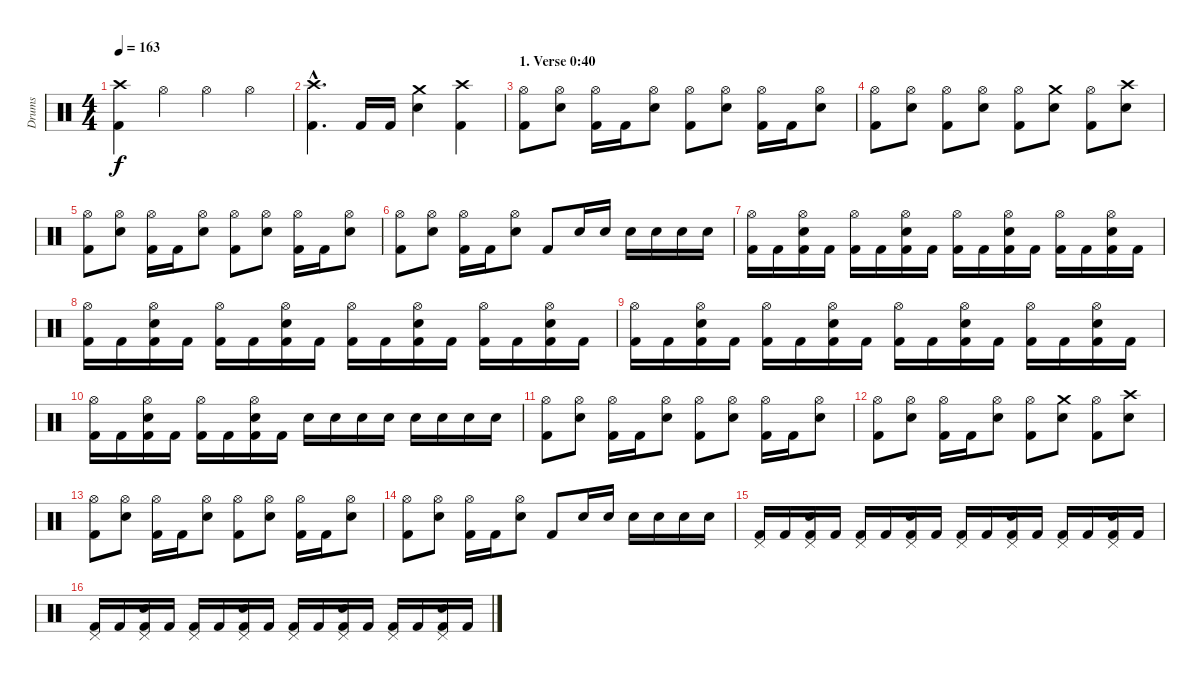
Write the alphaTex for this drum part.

\track ("Drums" "Drums") {instrument percussion}
\staff {score}
\articulation defaults
\ts (4 4)
\tempo 163
\clef neutral
\ks c
("Kick (hit) 2" "Crash high (hit)").4{dy f} "Hi-Hat (open)".4 "Hi-Hat (open)".4 "Hi-Hat (open)".4 |
("Kick (hit) 2"{hac} "Crash high (hit)"{hac}).4{d} "Kick (hit) 2".16 "Kick (hit) 2".16 ("Crash medium (hit)" "Snare (hit) 2").4 ("Crash high (hit)" "Kick (hit) 2").4 |
\section ("" "1. Verse 0:40")
("Hi-Hat (open)" "Kick (hit) 2").8 ("Hi-Hat (open)" "Snare (hit) 2").8 ("Hi-Hat (open)" "Kick (hit) 2").16 "Kick (hit) 2".16 ("Hi-Hat (open)" "Snare (hit) 2").8 ("Hi-Hat (open)" "Kick (hit) 2").8 ("Hi-Hat (open)" "Snare (hit) 2").8 ("Hi-Hat (open)" "Kick (hit) 2").16 "Kick (hit) 2".16 ("Hi-Hat (open)" "Snare (hit) 2").8 |
("Hi-Hat (open)" "Kick (hit) 2").8 ("Hi-Hat (open)" "Snare (hit) 2").8 ("Hi-Hat (open)" "Kick (hit) 2").8 ("Hi-Hat (open)" "Snare (hit) 2").8 ("Hi-Hat (open)" "Kick (hit) 2").8 ("Crash medium (hit)" "Snare (hit) 2").8 ("Hi-Hat (open)" "Kick (hit) 2").8 ("Crash high (hit)" "Snare (hit) 2").8 |
("Hi-Hat (open)" "Kick (hit) 2").8 ("Hi-Hat (open)" "Snare (hit) 2").8 ("Hi-Hat (open)" "Kick (hit) 2").16 "Kick (hit) 2".16 ("Hi-Hat (open)" "Snare (hit) 2").8 ("Hi-Hat (open)" "Kick (hit) 2").8 ("Hi-Hat (open)" "Snare (hit) 2").8 ("Hi-Hat (open)" "Kick (hit) 2").16 "Kick (hit) 2".16 ("Hi-Hat (open)" "Snare (hit) 2").8 |
("Hi-Hat (open)" "Kick (hit) 2").8 ("Hi-Hat (open)" "Snare (hit) 2").8 ("Hi-Hat (open)" "Kick (hit) 2").16 "Kick (hit) 2".16 ("Hi-Hat (open)" "Snare (hit) 2").8 "Kick (hit) 2".8 "Snare (hit) 2".16 "Snare (hit) 2".16 "Snare (hit) 2".16 "Snare (hit) 2".16 "Snare (hit) 2".16 "Snare (hit) 2".16 |
("Hi-Hat (open)" "Kick (hit) 2").16 "Kick (hit) 2".16 ("Hi-Hat (open)" "Kick (hit) 2" "Snare (hit) 2").16 "Kick (hit) 2".16 ("Hi-Hat (open)" "Kick (hit) 2").16 "Kick (hit) 2".16 ("Hi-Hat (open)" "Kick (hit) 2" "Snare (hit) 2").16 "Kick (hit) 2".16 ("Hi-Hat (open)" "Kick (hit) 2").16 "Kick (hit) 2".16 ("Hi-Hat (open)" "Kick (hit) 2" "Snare (hit) 2").16 "Kick (hit) 2".16 ("Hi-Hat (open)" "Kick (hit) 2").16 "Kick (hit) 2".16 ("Hi-Hat (open)" "Kick (hit) 2" "Snare (hit) 2").16 "Kick (hit) 2".16 |
("Hi-Hat (open)" "Kick (hit) 2").16 "Kick (hit) 2".16 ("Hi-Hat (open)" "Kick (hit) 2" "Snare (hit) 2").16 "Kick (hit) 2".16 ("Hi-Hat (open)" "Kick (hit) 2").16 "Kick (hit) 2".16 ("Hi-Hat (open)" "Kick (hit) 2" "Snare (hit) 2").16 "Kick (hit) 2".16 ("Hi-Hat (open)" "Kick (hit) 2").16 "Kick (hit) 2".16 ("Hi-Hat (open)" "Kick (hit) 2" "Snare (hit) 2").16 "Kick (hit) 2".16 ("Hi-Hat (open)" "Kick (hit) 2").16 "Kick (hit) 2".16 ("Hi-Hat (open)" "Kick (hit) 2" "Snare (hit) 2").16 "Kick (hit) 2".16 |
("Hi-Hat (open)" "Kick (hit) 2").16 "Kick (hit) 2".16 ("Hi-Hat (open)" "Kick (hit) 2" "Snare (hit) 2").16 "Kick (hit) 2".16 ("Hi-Hat (open)" "Kick (hit) 2").16 "Kick (hit) 2".16 ("Hi-Hat (open)" "Kick (hit) 2" "Snare (hit) 2").16 "Kick (hit) 2".16 ("Hi-Hat (open)" "Kick (hit) 2").16 "Kick (hit) 2".16 ("Hi-Hat (open)" "Kick (hit) 2" "Snare (hit) 2").16 "Kick (hit) 2".16 ("Hi-Hat (open)" "Kick (hit) 2").16 "Kick (hit) 2".16 ("Hi-Hat (open)" "Kick (hit) 2" "Snare (hit) 2").16 "Kick (hit) 2".16 |
("Hi-Hat (open)" "Kick (hit) 2").16 "Kick (hit) 2".16 ("Hi-Hat (open)" "Kick (hit) 2" "Snare (hit) 2").16 "Kick (hit) 2".16 ("Hi-Hat (open)" "Kick (hit) 2").16 "Kick (hit) 2".16 ("Hi-Hat (open)" "Kick (hit) 2" "Snare (hit) 2").16 "Kick (hit) 2".16 "Snare (hit) 2".16 "Snare (hit) 2".16 "Snare (hit) 2".16 "Snare (hit) 2".16 "Snare (hit) 2".16 "Snare (hit) 2".16 "Snare (hit) 2".16 "Snare (hit) 2".16 |
("Hi-Hat (open)" "Kick (hit) 2").8 ("Hi-Hat (open)" "Snare (hit) 2").8 ("Hi-Hat (open)" "Kick (hit) 2").16 "Kick (hit) 2".16 ("Hi-Hat (open)" "Snare (hit) 2").8 ("Hi-Hat (open)" "Kick (hit) 2").8 ("Hi-Hat (open)" "Snare (hit) 2").8 ("Hi-Hat (open)" "Kick (hit) 2").16 "Kick (hit) 2".16 ("Hi-Hat (open)" "Snare (hit) 2").8 |
("Hi-Hat (open)" "Kick (hit) 2").8 ("Hi-Hat (open)" "Snare (hit) 2").8 ("Hi-Hat (open)" "Kick (hit) 2").16 "Kick (hit) 2".16 ("Hi-Hat (open)" "Snare (hit) 2").8 ("Hi-Hat (open)" "Kick (hit) 2").8 ("Crash medium (hit)" "Snare (hit) 2").8 ("Hi-Hat (open)" "Kick (hit) 2").8 ("Crash high (hit)" "Snare (hit) 2").8 |
("Hi-Hat (open)" "Kick (hit) 2").8 ("Hi-Hat (open)" "Snare (hit) 2").8 ("Hi-Hat (open)" "Kick (hit) 2").16 "Kick (hit) 2".16 ("Hi-Hat (open)" "Snare (hit) 2").8 ("Hi-Hat (open)" "Kick (hit) 2").8 ("Hi-Hat (open)" "Snare (hit) 2").8 ("Hi-Hat (open)" "Kick (hit) 2").16 "Kick (hit) 2".16 ("Hi-Hat (open)" "Snare (hit) 2").8 |
("Hi-Hat (open)" "Kick (hit) 2").8 ("Hi-Hat (open)" "Snare (hit) 2").8 ("Hi-Hat (open)" "Kick (hit) 2").16 "Kick (hit) 2".16 ("Hi-Hat (open)" "Snare (hit) 2").8 "Kick (hit) 2".8 "Snare (hit) 2".16 "Snare (hit) 2".16 "Snare (hit) 2".16 "Snare (hit) 2".16 "Snare (hit) 2".16 "Snare (hit) 2".16 |
("Pedal Hi-Hat (hit)" "Kick (hit) 2").16 "Kick (hit) 2".16 ("Pedal Hi-Hat (hit)" "Kick (hit) 2" "Snare (hit) 2").16 "Kick (hit) 2".16 ("Pedal Hi-Hat (hit)" "Kick (hit) 2").16 "Kick (hit) 2".16 ("Pedal Hi-Hat (hit)" "Kick (hit) 2" "Snare (hit) 2").16 "Kick (hit) 2".16 ("Pedal Hi-Hat (hit)" "Kick (hit) 2").16 "Kick (hit) 2".16 ("Pedal Hi-Hat (hit)" "Kick (hit) 2" "Snare (hit) 2").16 "Kick (hit) 2".16 ("Pedal Hi-Hat (hit)" "Kick (hit) 2").16 "Kick (hit) 2".16 ("Pedal Hi-Hat (hit)" "Kick (hit) 2" "Snare (hit) 2").16 "Kick (hit) 2".16 |
("Pedal Hi-Hat (hit)" "Kick (hit) 2").16 "Kick (hit) 2".16 ("Pedal Hi-Hat (hit)" "Kick (hit) 2" "Snare (hit) 2").16 "Kick (hit) 2".16 ("Pedal Hi-Hat (hit)" "Kick (hit) 2").16 "Kick (hit) 2".16 ("Pedal Hi-Hat (hit)" "Kick (hit) 2" "Snare (hit) 2").16 "Kick (hit) 2".16 ("Pedal Hi-Hat (hit)" "Kick (hit) 2").16 "Kick (hit) 2".16 ("Pedal Hi-Hat (hit)" "Kick (hit) 2" "Snare (hit) 2").16 "Kick (hit) 2".16 ("Pedal Hi-Hat (hit)" "Kick (hit) 2").16 "Kick (hit) 2".16 ("Pedal Hi-Hat (hit)" "Kick (hit) 2" "Snare (hit) 2").16 "Kick (hit) 2".16
